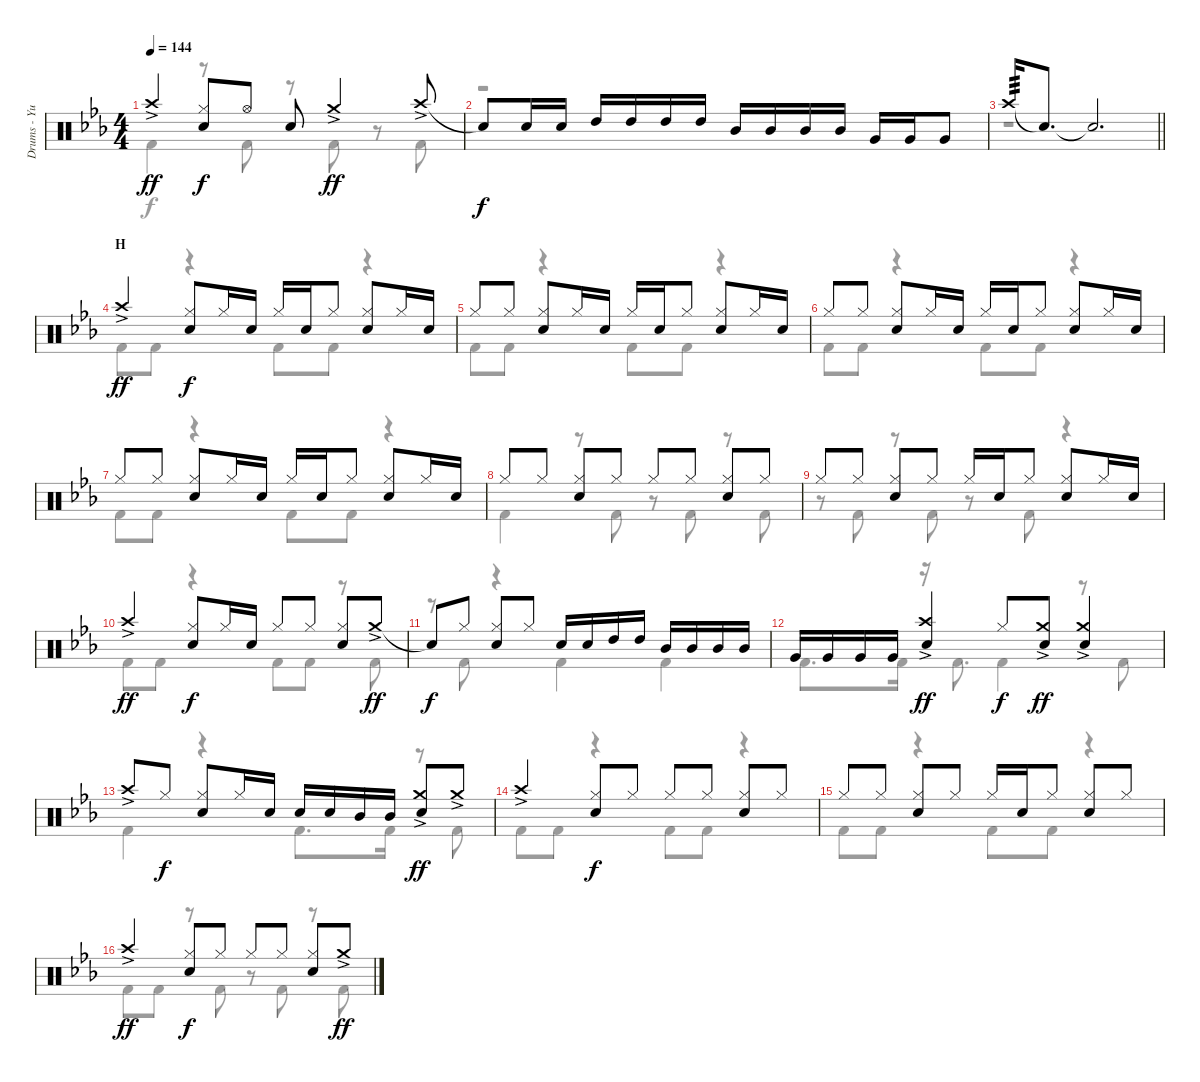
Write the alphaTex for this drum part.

\track ("Drums - Yuuya" "Drums - Yu") {instrument percussion}
\staff {score}
\articulation defaults
\voice
\ts (4 4)
\tempo 144
\clef neutral
\ks eb "Crash high (hit)"{ac}.4{dy ff}
("Hi-Hat (closed)" "Snare (hit) 2").8{dy f} "Hi-Hat (open)".8 "Snare (hit)".8 "Crash medium (hit)"{ac}.4{dy ff} "Crash high (hit)"{ac}.8 |
"Snare (hit)"{t}.8{dy f} "Snare (hit) 2".16 "Snare (hit) 2".16 "High Tom (hit)".16 "High Tom (hit)".16 "High Tom (hit)".16 "High Tom (hit)".16 "Mid Tom (hit)".16 "Mid Tom (hit)".16 "Mid Tom (hit)".16 "Mid Tom (hit)".16 "Very Low Tom (hit)".16 "Very Low Tom (hit)".16 "Very Low Tom (hit)".8 |
\barLineRight lightlight "Crash high (hit)".16{tp 3 volume 3} "Snare (hit)"{t}.8{d volume 13} "Snare (hit)"{t}.2{d}
|
\section ("" "H")
"Crash high (hit)"{ac}.4{dy ff} ("Hi-Hat (closed)" "Snare (hit) 2").8{dy f} "Hi-Hat (closed)".16 "Snare (hit) 2".16 "Hi-Hat (closed)".16 "Snare (hit) 2".16 "Hi-Hat (closed)".8 ("Hi-Hat (closed)" "Snare (hit) 2").8 "Hi-Hat (closed)".16 "Snare (hit) 2".16 |
"Hi-Hat (closed)".8 "Hi-Hat (closed)".8 ("Hi-Hat (closed)" "Snare (hit) 2").8 "Hi-Hat (closed)".16 "Snare (hit) 2".16 "Hi-Hat (closed)".16 "Snare (hit) 2".16 "Hi-Hat (closed)".8 ("Hi-Hat (closed)" "Snare (hit) 2").8 "Hi-Hat (closed)".16 "Snare (hit) 2".16 |
"Hi-Hat (closed)".8 "Hi-Hat (closed)".8 ("Hi-Hat (closed)" "Snare (hit) 2").8 "Hi-Hat (closed)".16 "Snare (hit) 2".16 "Hi-Hat (closed)".16 "Snare (hit) 2".16 "Hi-Hat (closed)".8 ("Hi-Hat (closed)" "Snare (hit) 2").8 "Hi-Hat (closed)".16 "Snare (hit) 2".16 |
"Hi-Hat (closed)".8 "Hi-Hat (closed)".8 ("Hi-Hat (closed)" "Snare (hit) 2").8 "Hi-Hat (closed)".16 "Snare (hit) 2".16 "Hi-Hat (closed)".16 "Snare (hit) 2".16 "Hi-Hat (closed)".8 ("Hi-Hat (closed)" "Snare (hit) 2").8 "Hi-Hat (closed)".16 "Snare (hit) 2".16 |
"Hi-Hat (closed)".8 "Hi-Hat (closed)".8 ("Hi-Hat (closed)" "Snare (hit) 2").8 "Hi-Hat (closed)".8 "Hi-Hat (closed)".8 "Hi-Hat (closed)".8 ("Hi-Hat (closed)" "Snare (hit) 2").8 "Hi-Hat (closed)".8 |
"Hi-Hat (closed)".8 "Hi-Hat (closed)".8 ("Hi-Hat (closed)" "Snare (hit) 2").8 "Hi-Hat (closed)".8 "Hi-Hat (closed)".16 "Snare (hit) 2".16 "Hi-Hat (closed)".8 ("Hi-Hat (closed)" "Snare (hit) 2").8 "Hi-Hat (closed)".16 "Snare (hit) 2".16 |
"Crash high (hit)"{ac}.4{dy ff} ("Hi-Hat (closed)" "Snare (hit) 2").8{dy f} "Hi-Hat (closed)".16 "Snare (hit) 2".16 "Hi-Hat (closed)".8 "Hi-Hat (closed)".8 ("Hi-Hat (closed)" "Snare (hit) 2").8 "Crash medium (hit)"{ac}.8{dy ff} |
"Snare (hit)"{t}.8{dy f} "Hi-Hat (closed)".8 ("Hi-Hat (closed)" "Snare (hit) 2").8 "Hi-Hat (closed)".8 "Snare (hit) 2".16 "Snare (hit) 2".16 "High Tom (hit)".16 "High Tom (hit)".16 "Mid Tom (hit)".16 "Mid Tom (hit)".16 "Mid Tom (hit)".16 "Mid Tom (hit)".16 |
"Very Low Tom (hit)".16 "Very Low Tom (hit)".16 "Very Low Tom (hit)".16 "Very Low Tom (hit)".16 ("Crash high (hit)"{ac} "Snare (hit) 2").4{dy ff} "Hi-Hat (closed)".8{dy f} ("Crash medium (hit)"{ac} "Snare (hit) 2").8{dy ff} ("Crash medium (hit)"{ac} "Snare (hit) 2").4 |
"Crash high (hit)"{ac}.8 "Hi-Hat (closed)".8{dy f} ("Hi-Hat (closed)" "Snare (hit) 2").8 "Hi-Hat (closed)".16 "Snare (hit) 2".16 "Snare (hit) 2".16 "Snare (hit) 2".16 "Mid Tom (hit)".16 "Mid Tom (hit)".16 ("Crash medium (hit)"{ac} "Snare (hit) 2").8{dy ff} "Crash medium (hit)"{ac}.8 |
"Crash high (hit)"{ac}.4 ("Hi-Hat (closed)" "Snare (hit) 2").8{dy f} "Hi-Hat (closed)".8 "Hi-Hat (closed)".8 "Hi-Hat (closed)".8 ("Hi-Hat (closed)" "Snare (hit) 2").8 "Hi-Hat (closed)".8 |
"Hi-Hat (closed)".8 "Hi-Hat (closed)".8 ("Hi-Hat (closed)" "Snare (hit) 2").8 "Hi-Hat (closed)".8 "Hi-Hat (closed)".16 "Snare (hit) 2".16 "Hi-Hat (closed)".8 ("Hi-Hat (closed)" "Snare (hit) 2").8 "Hi-Hat (closed)".8 |
"Crash high (hit)"{ac}.4{dy ff} ("Hi-Hat (closed)" "Snare (hit) 2").8{dy f} "Hi-Hat (closed)".8 "Hi-Hat (closed)".8 "Hi-Hat (closed)".8 ("Hi-Hat (closed)" "Snare (hit) 2").8 "Crash medium (hit)"{ac}.8{dy ff}
\voice
\clef neutral
\ottava regular
\simile none
\ks eb "Kick (hit) 2".4{dy f}
r.8 "Kick (hit) 2".8 r.8 "Kick (hit) 2".8 r.8 "Kick (hit) 2".8 |
r.1 |
\barLineRight lightlight
r.1 |
"Kick (hit) 2".8 "Kick (hit) 2".8 r.4 "Kick (hit) 2".8 "Kick (hit) 2".8 r.4 |
"Kick (hit) 2".8 "Kick (hit) 2".8 r.4 "Kick (hit) 2".8 "Kick (hit) 2".8 r.4 |
"Kick (hit) 2".8 "Kick (hit) 2".8 r.4 "Kick (hit) 2".8 "Kick (hit) 2".8 r.4 |
"Kick (hit) 2".8 "Kick (hit) 2".8 r.4 "Kick (hit) 2".8 "Kick (hit) 2".8 r.4 |
"Kick (hit) 2".4 r.8 "Kick (hit) 2".8 r.8 "Kick (hit) 2".8 r.8 "Kick (hit) 2".8 |
r.8 "Kick (hit) 2".8 r.8 "Kick (hit) 2".8 r.8 "Kick (hit) 2".8 r.4 |
"Kick (hit) 2".8 "Kick (hit) 2".8 r.4 "Kick (hit) 2".8 "Kick (hit) 2".8 r.8 "Kick (hit) 2".8 |
r.8 "Kick (hit) 2".8 r.4 "Kick (hit) 2".4 "Kick (hit) 2".4 |
"Kick (hit) 2".8{d} "Kick (hit) 2".16 r.16 "Kick (hit) 2".8{d} "Kick (hit) 2".4 r.8 "Kick (hit) 2".8 |
"Kick (hit) 2".4 r.4 "Kick (hit) 2".8{d} "Kick (hit) 2".16 r.8 "Kick (hit) 2".8 |
"Kick (hit) 2".8 "Kick (hit) 2".8 r.4 "Kick (hit) 2".8 "Kick (hit) 2".8 r.4 |
"Kick (hit) 2".8 "Kick (hit) 2".8 r.4 "Kick (hit) 2".8 "Kick (hit) 2".8 r.4 |
"Kick (hit) 2".8 "Kick (hit) 2".8 r.8 "Kick (hit) 2".8 r.8 "Kick (hit) 2".8 r.8 "Kick (hit) 2".8
